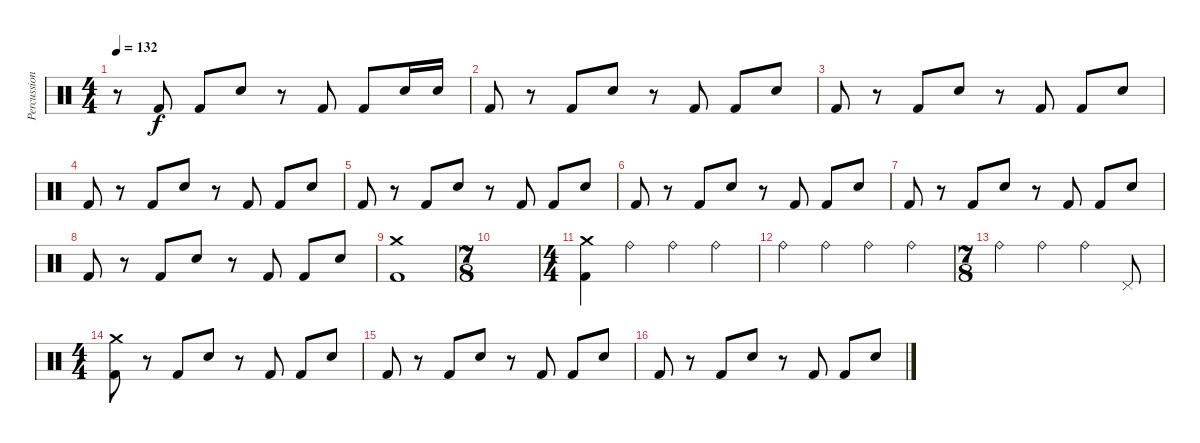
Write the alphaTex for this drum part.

\track ("Percussion" "Percussion") {instrument percussion}
\staff {score}
\articulation defaults
\ts (4 4)
\tempo 132
\clef neutral
\ks c
r.8{dy f} "Kick (hit) 2".8 "Kick (hit) 2".8 "Snare (hit) 2".8 r.8 "Kick (hit) 2".8 "Kick (hit) 2".8 "Snare (hit) 2".16 "Snare (hit) 2".16 |
"Kick (hit) 2".8 r.8 "Kick (hit) 2".8 "Snare (hit) 2".8 r.8 "Kick (hit) 2".8 "Kick (hit) 2".8 "Snare (hit) 2".8 |
"Kick (hit) 2".8 r.8 "Kick (hit) 2".8 "Snare (hit) 2".8 r.8 "Kick (hit) 2".8 "Kick (hit) 2".8 "Snare (hit) 2".8 |
"Kick (hit) 2".8 r.8 "Kick (hit) 2".8 "Snare (hit) 2".8 r.8 "Kick (hit) 2".8 "Kick (hit) 2".8 "Snare (hit) 2".8 |
"Kick (hit) 2".8 r.8 "Kick (hit) 2".8 "Snare (hit) 2".8 r.8 "Kick (hit) 2".8 "Kick (hit) 2".8 "Snare (hit) 2".8 |
"Kick (hit) 2".8 r.8 "Kick (hit) 2".8 "Snare (hit) 2".8 r.8 "Kick (hit) 2".8 "Kick (hit) 2".8 "Snare (hit) 2".8 |
"Kick (hit) 2".8 r.8 "Kick (hit) 2".8 "Snare (hit) 2".8 r.8 "Kick (hit) 2".8 "Kick (hit) 2".8 "Snare (hit) 2".8 |
"Kick (hit) 2".8 r.8 "Kick (hit) 2".8 "Snare (hit) 2".8 r.8 "Kick (hit) 2".8 "Kick (hit) 2".8 "Snare (hit) 2".8 |
("Crash medium (hit)" "Kick (hit) 2").1 |
\ts (7 8)
|
\ts (4 4)
("Crash medium (hit)" "Kick (hit) 2").4 "Ride (bell)".4 "Ride (bell)".4 "Ride (bell)".4 |
"Ride (bell)".4 "Ride (bell)".4 "Ride (bell)".4 "Ride (bell)".4 |
\ts (7 8)
"Ride (bell)".4 "Ride (bell)".4 "Ride (bell)".4 "Pedal Hi-Hat (hit)".8 |
\ts (4 4)
("Crash medium (hit)" "Kick (hit) 2").8 r.8 "Kick (hit) 2".8 "Snare (hit) 2".8 r.8 "Kick (hit) 2".8 "Kick (hit) 2".8 "Snare (hit) 2".8 |
"Kick (hit) 2".8 r.8 "Kick (hit) 2".8 "Snare (hit) 2".8 r.8 "Kick (hit) 2".8 "Kick (hit) 2".8 "Snare (hit) 2".8 |
"Kick (hit) 2".8 r.8 "Kick (hit) 2".8 "Snare (hit) 2".8 r.8 "Kick (hit) 2".8 "Kick (hit) 2".8 "Snare (hit) 2".8
